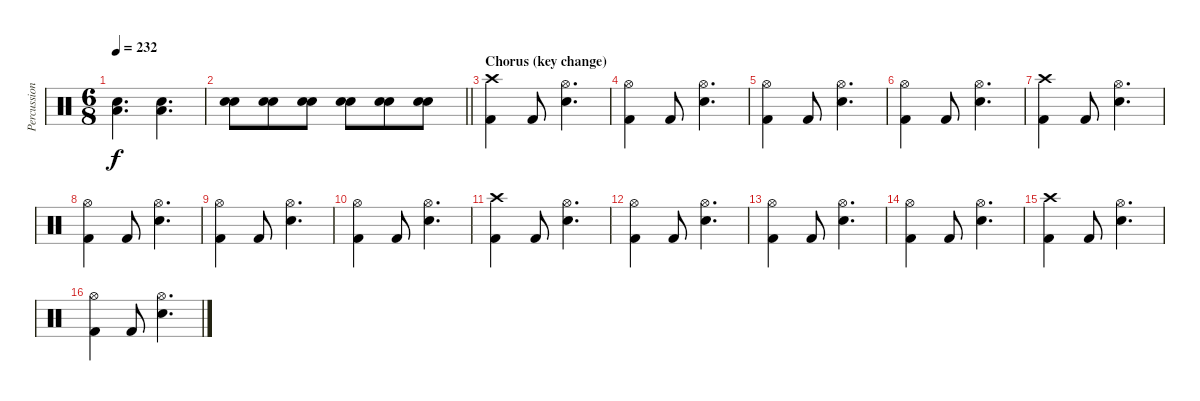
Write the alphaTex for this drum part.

\track ("Percussion" "Percussion") {instrument percussion}
\staff {score}
\articulation defaults
\ts (6 8)
\tempo 232
\clef neutral
\ks c
("Electric Snare (hit)" "Low Floor Tom (hit)").4{d dy f} ("Electric Snare (hit)" "Low Floor Tom (hit)").4{d} |
\barLineRight lightlight
("Electric Snare (hit)" "Electric Snare (hit)").8{volume 13} ("Electric Snare (hit)" "Electric Snare (hit)").8 ("Electric Snare (hit)" "Electric Snare (hit)").8 ("Electric Snare (hit)" "Electric Snare (hit)").8 ("Electric Snare (hit)" "Electric Snare (hit)").8 ("Electric Snare (hit)" "Electric Snare (hit)").8 |
\section ("" "Chorus (key change)")
("Crash high (hit)" "Kick (hit) 2").4 "Kick (hit) 2".8 ("Hi-Hat (open)" "Electric Snare (hit)").4{d} |
("Hi-Hat (open)" "Kick (hit) 2").4 "Kick (hit) 2".8 ("Hi-Hat (open)" "Electric Snare (hit)").4{d} |
("Hi-Hat (open)" "Kick (hit) 2").4 "Kick (hit) 2".8 ("Hi-Hat (open)" "Electric Snare (hit)").4{d} |
("Hi-Hat (open)" "Kick (hit) 2").4 "Kick (hit) 2".8 ("Hi-Hat (open)" "Electric Snare (hit)").4{d} |
("Crash high (hit)" "Kick (hit) 2").4 "Kick (hit) 2".8 ("Hi-Hat (open)" "Electric Snare (hit)").4{d} |
("Hi-Hat (open)" "Kick (hit) 2").4 "Kick (hit) 2".8 ("Hi-Hat (open)" "Electric Snare (hit)").4{d} |
("Hi-Hat (open)" "Kick (hit) 2").4 "Kick (hit) 2".8 ("Hi-Hat (open)" "Electric Snare (hit)").4{d} |
("Hi-Hat (open)" "Kick (hit) 2").4 "Kick (hit) 2".8 ("Hi-Hat (open)" "Electric Snare (hit)").4{d} |
("Crash high (hit)" "Kick (hit) 2").4 "Kick (hit) 2".8 ("Hi-Hat (open)" "Electric Snare (hit)").4{d} |
("Hi-Hat (open)" "Kick (hit) 2").4 "Kick (hit) 2".8 ("Hi-Hat (open)" "Electric Snare (hit)").4{d} |
("Hi-Hat (open)" "Kick (hit) 2").4 "Kick (hit) 2".8 ("Hi-Hat (open)" "Electric Snare (hit)").4{d} |
("Hi-Hat (open)" "Kick (hit) 2").4 "Kick (hit) 2".8 ("Hi-Hat (open)" "Electric Snare (hit)").4{d} |
("Crash high (hit)" "Kick (hit) 2").4 "Kick (hit) 2".8 ("Hi-Hat (open)" "Electric Snare (hit)").4{d} |
("Hi-Hat (open)" "Kick (hit) 2").4 "Kick (hit) 2".8 ("Hi-Hat (open)" "Electric Snare (hit)").4{d}
